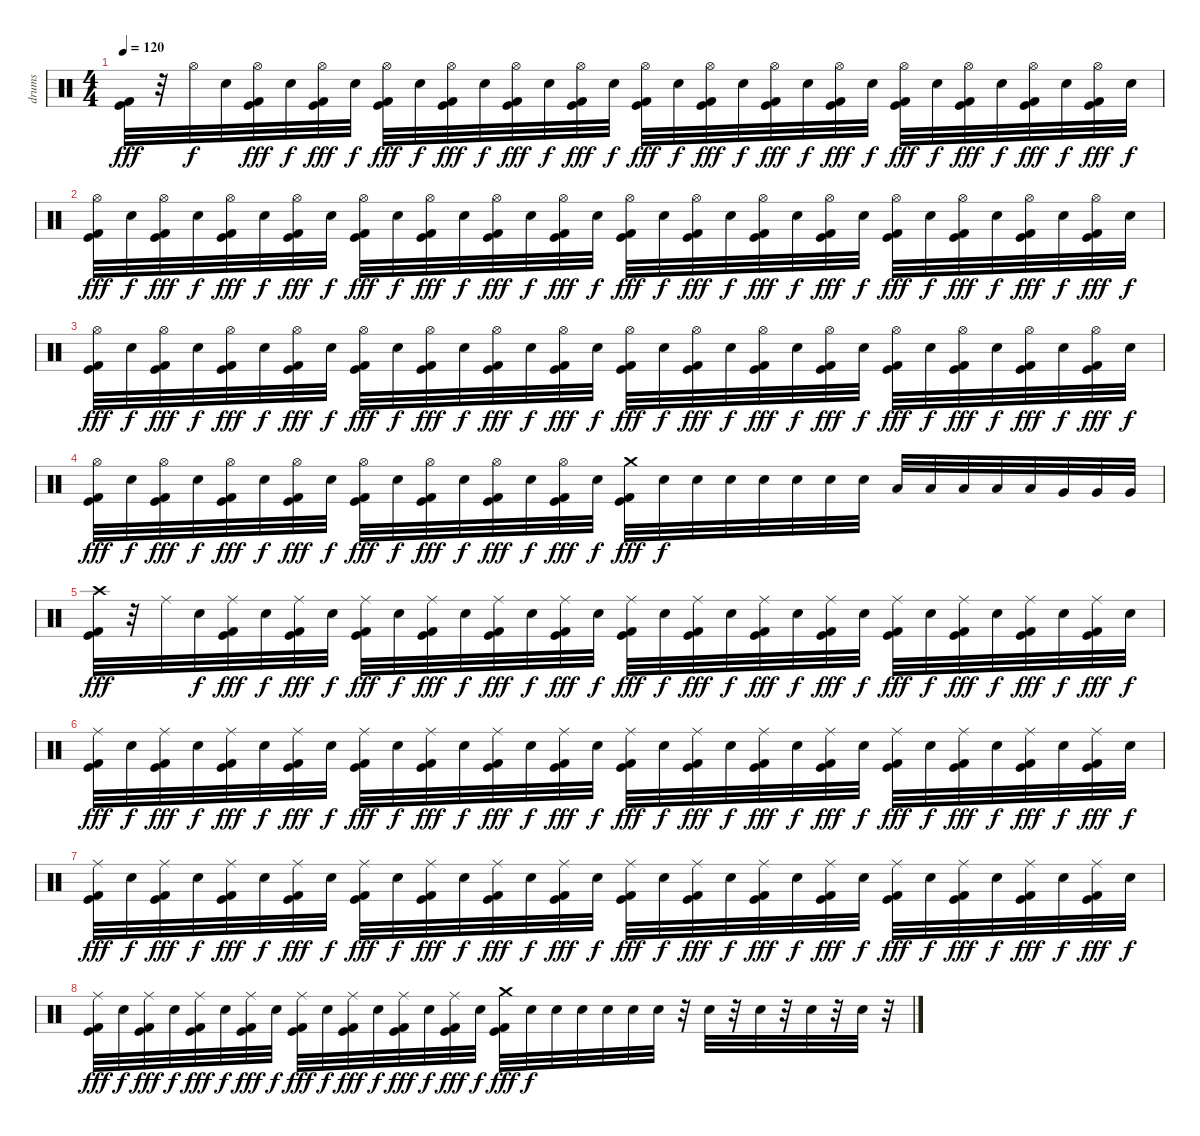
\track ("drums" "drums") {instrument percussion}
\staff {score}
\articulation defaults
\ts (4 4)
\tempo 120
\clef neutral
\ks c
("Kick (hit)" "Kick (hit) 2").32{dy fff} r.32 "Hi-Hat (open)".32{dy f} "Electric Snare (hit)".32 ("Hi-Hat (open)" "Kick (hit)" "Kick (hit) 2").32{dy fff} "Electric Snare (hit)".32{dy f} ("Hi-Hat (open)" "Kick (hit)" "Kick (hit) 2").32{dy fff} "Electric Snare (hit)".32{dy f} ("Hi-Hat (open)" "Kick (hit)" "Kick (hit) 2").32{dy fff} "Electric Snare (hit)".32{dy f} ("Hi-Hat (open)" "Kick (hit)" "Kick (hit) 2").32{dy fff} "Electric Snare (hit)".32{dy f} ("Hi-Hat (open)" "Kick (hit)" "Kick (hit) 2").32{dy fff} "Electric Snare (hit)".32{dy f} ("Hi-Hat (open)" "Kick (hit)" "Kick (hit) 2").32{dy fff} "Electric Snare (hit)".32{dy f} ("Hi-Hat (open)" "Kick (hit)" "Kick (hit) 2").32{dy fff} "Electric Snare (hit)".32{dy f} ("Hi-Hat (open)" "Kick (hit)" "Kick (hit) 2").32{dy fff} "Electric Snare (hit)".32{dy f} ("Hi-Hat (open)" "Kick (hit)" "Kick (hit) 2").32{dy fff} "Electric Snare (hit)".32{dy f} ("Hi-Hat (open)" "Kick (hit)" "Kick (hit) 2").32{dy fff} "Electric Snare (hit)".32{dy f} ("Hi-Hat (open)" "Kick (hit)" "Kick (hit) 2").32{dy fff} "Electric Snare (hit)".32{dy f} ("Hi-Hat (open)" "Kick (hit)" "Kick (hit) 2").32{dy fff} "Electric Snare (hit)".32{dy f} ("Hi-Hat (open)" "Kick (hit)" "Kick (hit) 2").32{dy fff} "Electric Snare (hit)".32{dy f} ("Hi-Hat (open)" "Kick (hit)" "Kick (hit) 2").32{dy fff} "Electric Snare (hit)".32{dy f} |
("Hi-Hat (open)" "Kick (hit)" "Kick (hit) 2").32{dy fff} "Electric Snare (hit)".32{dy f} ("Hi-Hat (open)" "Kick (hit)" "Kick (hit) 2").32{dy fff} "Electric Snare (hit)".32{dy f} ("Hi-Hat (open)" "Kick (hit)" "Kick (hit) 2").32{dy fff} "Electric Snare (hit)".32{dy f} ("Hi-Hat (open)" "Kick (hit)" "Kick (hit) 2").32{dy fff} "Electric Snare (hit)".32{dy f} ("Hi-Hat (open)" "Kick (hit)" "Kick (hit) 2").32{dy fff} "Electric Snare (hit)".32{dy f} ("Hi-Hat (open)" "Kick (hit)" "Kick (hit) 2").32{dy fff} "Electric Snare (hit)".32{dy f} ("Hi-Hat (open)" "Kick (hit)" "Kick (hit) 2").32{dy fff} "Electric Snare (hit)".32{dy f} ("Hi-Hat (open)" "Kick (hit)" "Kick (hit) 2").32{dy fff} "Electric Snare (hit)".32{dy f} ("Hi-Hat (open)" "Kick (hit)" "Kick (hit) 2").32{dy fff} "Electric Snare (hit)".32{dy f} ("Hi-Hat (open)" "Kick (hit)" "Kick (hit) 2").32{dy fff} "Electric Snare (hit)".32{dy f} ("Hi-Hat (open)" "Kick (hit)" "Kick (hit) 2").32{dy fff} "Electric Snare (hit)".32{dy f} ("Hi-Hat (open)" "Kick (hit)" "Kick (hit) 2").32{dy fff} "Electric Snare (hit)".32{dy f} ("Hi-Hat (open)" "Kick (hit)" "Kick (hit) 2").32{dy fff} "Electric Snare (hit)".32{dy f} ("Hi-Hat (open)" "Kick (hit)" "Kick (hit) 2").32{dy fff} "Electric Snare (hit)".32{dy f} ("Hi-Hat (open)" "Kick (hit)" "Kick (hit) 2").32{dy fff} "Electric Snare (hit)".32{dy f} ("Hi-Hat (open)" "Kick (hit)" "Kick (hit) 2").32{dy fff} "Electric Snare (hit)".32{dy f} |
("Hi-Hat (open)" "Kick (hit)" "Kick (hit) 2").32{dy fff} "Electric Snare (hit)".32{dy f} ("Hi-Hat (open)" "Kick (hit)" "Kick (hit) 2").32{dy fff} "Electric Snare (hit)".32{dy f} ("Hi-Hat (open)" "Kick (hit)" "Kick (hit) 2").32{dy fff} "Electric Snare (hit)".32{dy f} ("Hi-Hat (open)" "Kick (hit)" "Kick (hit) 2").32{dy fff} "Electric Snare (hit)".32{dy f} ("Hi-Hat (open)" "Kick (hit)" "Kick (hit) 2").32{dy fff} "Electric Snare (hit)".32{dy f} ("Hi-Hat (open)" "Kick (hit)" "Kick (hit) 2").32{dy fff} "Electric Snare (hit)".32{dy f} ("Hi-Hat (open)" "Kick (hit)" "Kick (hit) 2").32{dy fff} "Electric Snare (hit)".32{dy f} ("Hi-Hat (open)" "Kick (hit)" "Kick (hit) 2").32{dy fff} "Electric Snare (hit)".32{dy f} ("Hi-Hat (open)" "Kick (hit)" "Kick (hit) 2").32{dy fff} "Electric Snare (hit)".32{dy f} ("Hi-Hat (open)" "Kick (hit)" "Kick (hit) 2").32{dy fff} "Electric Snare (hit)".32{dy f} ("Hi-Hat (open)" "Kick (hit)" "Kick (hit) 2").32{dy fff} "Electric Snare (hit)".32{dy f} ("Hi-Hat (open)" "Kick (hit)" "Kick (hit) 2").32{dy fff} "Electric Snare (hit)".32{dy f} ("Hi-Hat (open)" "Kick (hit)" "Kick (hit) 2").32{dy fff} "Electric Snare (hit)".32{dy f} ("Hi-Hat (open)" "Kick (hit)" "Kick (hit) 2").32{dy fff} "Electric Snare (hit)".32{dy f} ("Hi-Hat (open)" "Kick (hit)" "Kick (hit) 2").32{dy fff} "Electric Snare (hit)".32{dy f} ("Hi-Hat (open)" "Kick (hit)" "Kick (hit) 2").32{dy fff} "Electric Snare (hit)".32{dy f} |
("Hi-Hat (open)" "Kick (hit)" "Kick (hit) 2").32{dy fff} "Electric Snare (hit)".32{dy f} ("Hi-Hat (open)" "Kick (hit)" "Kick (hit) 2").32{dy fff} "Electric Snare (hit)".32{dy f} ("Hi-Hat (open)" "Kick (hit)" "Kick (hit) 2").32{dy fff} "Electric Snare (hit)".32{dy f} ("Hi-Hat (open)" "Kick (hit)" "Kick (hit) 2").32{dy fff} "Electric Snare (hit)".32{dy f} ("Hi-Hat (open)" "Kick (hit)" "Kick (hit) 2").32{dy fff} "Electric Snare (hit)".32{dy f} ("Hi-Hat (open)" "Kick (hit)" "Kick (hit) 2").32{dy fff} "Electric Snare (hit)".32{dy f} ("Hi-Hat (open)" "Kick (hit)" "Kick (hit) 2").32{dy fff} "Electric Snare (hit)".32{dy f} ("Hi-Hat (open)" "Kick (hit)" "Kick (hit) 2").32{dy fff} "Electric Snare (hit)".32{dy f} ("Crash medium (hit)" "Kick (hit)" "Kick (hit) 2").32{dy fff} "Electric Snare (hit)".32{dy f} "Electric Snare (hit)".32 "Electric Snare (hit)".32 "Electric Snare (hit)".32 "Electric Snare (hit)".32 "Electric Snare (hit)".32 "Electric Snare (hit)".32 "Low Tom (hit)".32 "Low Tom (hit)".32 "Low Tom (hit)".32 "Low Tom (hit)".32 "Low Tom (hit)".32 "Very Low Tom (hit)".32 "Very Low Tom (hit)".32 "Very Low Tom (hit)".32 |
("Crash high (hit)" "Kick (hit)" "Kick (hit) 2").32{dy fff} r.32 "Ride (middle)".32 "Electric Snare (hit)".32{dy f} ("Ride (middle)" "Kick (hit)" "Kick (hit) 2").32{dy fff} "Electric Snare (hit)".32{dy f} ("Ride (middle)" "Kick (hit)" "Kick (hit) 2").32{dy fff} "Electric Snare (hit)".32{dy f} ("Ride (middle)" "Kick (hit)" "Kick (hit) 2").32{dy fff} "Electric Snare (hit)".32{dy f} ("Ride (middle)" "Kick (hit)" "Kick (hit) 2").32{dy fff} "Electric Snare (hit)".32{dy f} ("Ride (middle)" "Kick (hit)" "Kick (hit) 2").32{dy fff} "Electric Snare (hit)".32{dy f} ("Ride (middle)" "Kick (hit)" "Kick (hit) 2").32{dy fff} "Electric Snare (hit)".32{dy f} ("Ride (middle)" "Kick (hit)" "Kick (hit) 2").32{dy fff} "Electric Snare (hit)".32{dy f} ("Ride (middle)" "Kick (hit)" "Kick (hit) 2").32{dy fff} "Electric Snare (hit)".32{dy f} ("Ride (middle)" "Kick (hit)" "Kick (hit) 2").32{dy fff} "Electric Snare (hit)".32{dy f} ("Ride (middle)" "Kick (hit)" "Kick (hit) 2").32{dy fff} "Electric Snare (hit)".32{dy f} ("Ride (middle)" "Kick (hit)" "Kick (hit) 2").32{dy fff} "Electric Snare (hit)".32{dy f} ("Ride (middle)" "Kick (hit)" "Kick (hit) 2").32{dy fff} "Electric Snare (hit)".32{dy f} ("Ride (middle)" "Kick (hit)" "Kick (hit) 2").32{dy fff} "Electric Snare (hit)".32{dy f} ("Ride (middle)" "Kick (hit)" "Kick (hit) 2").32{dy fff} "Electric Snare (hit)".32{dy f} |
("Ride (middle)" "Kick (hit)" "Kick (hit) 2").32{dy fff} "Electric Snare (hit)".32{dy f} ("Ride (middle)" "Kick (hit)" "Kick (hit) 2").32{dy fff} "Electric Snare (hit)".32{dy f} ("Ride (middle)" "Kick (hit)" "Kick (hit) 2").32{dy fff} "Electric Snare (hit)".32{dy f} ("Ride (middle)" "Kick (hit)" "Kick (hit) 2").32{dy fff} "Electric Snare (hit)".32{dy f} ("Ride (middle)" "Kick (hit)" "Kick (hit) 2").32{dy fff} "Electric Snare (hit)".32{dy f} ("Ride (middle)" "Kick (hit)" "Kick (hit) 2").32{dy fff} "Electric Snare (hit)".32{dy f} ("Ride (middle)" "Kick (hit)" "Kick (hit) 2").32{dy fff} "Electric Snare (hit)".32{dy f} ("Ride (middle)" "Kick (hit)" "Kick (hit) 2").32{dy fff} "Electric Snare (hit)".32{dy f} ("Ride (middle)" "Kick (hit)" "Kick (hit) 2").32{dy fff} "Electric Snare (hit)".32{dy f} ("Ride (middle)" "Kick (hit)" "Kick (hit) 2").32{dy fff} "Electric Snare (hit)".32{dy f} ("Ride (middle)" "Kick (hit)" "Kick (hit) 2").32{dy fff} "Electric Snare (hit)".32{dy f} ("Ride (middle)" "Kick (hit)" "Kick (hit) 2").32{dy fff} "Electric Snare (hit)".32{dy f} ("Ride (middle)" "Kick (hit)" "Kick (hit) 2").32{dy fff} "Electric Snare (hit)".32{dy f} ("Ride (middle)" "Kick (hit)" "Kick (hit) 2").32{dy fff} "Electric Snare (hit)".32{dy f} ("Ride (middle)" "Kick (hit)" "Kick (hit) 2").32{dy fff} "Electric Snare (hit)".32{dy f} ("Ride (middle)" "Kick (hit)" "Kick (hit) 2").32{dy fff} "Electric Snare (hit)".32{dy f} |
("Ride (middle)" "Kick (hit)" "Kick (hit) 2").32{dy fff} "Electric Snare (hit)".32{dy f} ("Ride (middle)" "Kick (hit)" "Kick (hit) 2").32{dy fff} "Electric Snare (hit)".32{dy f} ("Ride (middle)" "Kick (hit)" "Kick (hit) 2").32{dy fff} "Electric Snare (hit)".32{dy f} ("Ride (middle)" "Kick (hit)" "Kick (hit) 2").32{dy fff} "Electric Snare (hit)".32{dy f} ("Ride (middle)" "Kick (hit)" "Kick (hit) 2").32{dy fff} "Electric Snare (hit)".32{dy f} ("Ride (middle)" "Kick (hit)" "Kick (hit) 2").32{dy fff} "Electric Snare (hit)".32{dy f} ("Ride (middle)" "Kick (hit)" "Kick (hit) 2").32{dy fff} "Electric Snare (hit)".32{dy f} ("Ride (middle)" "Kick (hit)" "Kick (hit) 2").32{dy fff} "Electric Snare (hit)".32{dy f} ("Ride (middle)" "Kick (hit)" "Kick (hit) 2").32{dy fff} "Electric Snare (hit)".32{dy f} ("Ride (middle)" "Kick (hit)" "Kick (hit) 2").32{dy fff} "Electric Snare (hit)".32{dy f} ("Ride (middle)" "Kick (hit)" "Kick (hit) 2").32{dy fff} "Electric Snare (hit)".32{dy f} ("Ride (middle)" "Kick (hit)" "Kick (hit) 2").32{dy fff} "Electric Snare (hit)".32{dy f} ("Ride (middle)" "Kick (hit)" "Kick (hit) 2").32{dy fff} "Electric Snare (hit)".32{dy f} ("Ride (middle)" "Kick (hit)" "Kick (hit) 2").32{dy fff} "Electric Snare (hit)".32{dy f} ("Ride (middle)" "Kick (hit)" "Kick (hit) 2").32{dy fff} "Electric Snare (hit)".32{dy f} ("Ride (middle)" "Kick (hit)" "Kick (hit) 2").32{dy fff} "Electric Snare (hit)".32{dy f} |
("Ride (middle)" "Kick (hit)" "Kick (hit) 2").32{dy fff} "Electric Snare (hit)".32{dy f} ("Ride (middle)" "Kick (hit)" "Kick (hit) 2").32{dy fff} "Electric Snare (hit)".32{dy f} ("Ride (middle)" "Kick (hit)" "Kick (hit) 2").32{dy fff} "Electric Snare (hit)".32{dy f} ("Ride (middle)" "Kick (hit)" "Kick (hit) 2").32{dy fff} "Electric Snare (hit)".32{dy f} ("Ride (middle)" "Kick (hit)" "Kick (hit) 2").32{dy fff} "Electric Snare (hit)".32{dy f} ("Ride (middle)" "Kick (hit)" "Kick (hit) 2").32{dy fff} "Electric Snare (hit)".32{dy f} ("Ride (middle)" "Kick (hit)" "Kick (hit) 2").32{dy fff} "Electric Snare (hit)".32{dy f} ("Ride (middle)" "Kick (hit)" "Kick (hit) 2").32{dy fff} "Electric Snare (hit)".32{dy f} ("Crash medium (hit)" "Kick (hit)" "Kick (hit) 2").32{dy fff} "Electric Snare (hit)".32{dy f} "Electric Snare (hit)".32 "Electric Snare (hit)".32 "Electric Snare (hit)".32 "Electric Snare (hit)".32 "Electric Snare (hit)".32 r.32 "Electric Snare (hit)".32 r.32 "Electric Snare (hit)".32 r.32 "Electric Snare (hit)".32 r.32 "Electric Snare (hit)".32 r.32
